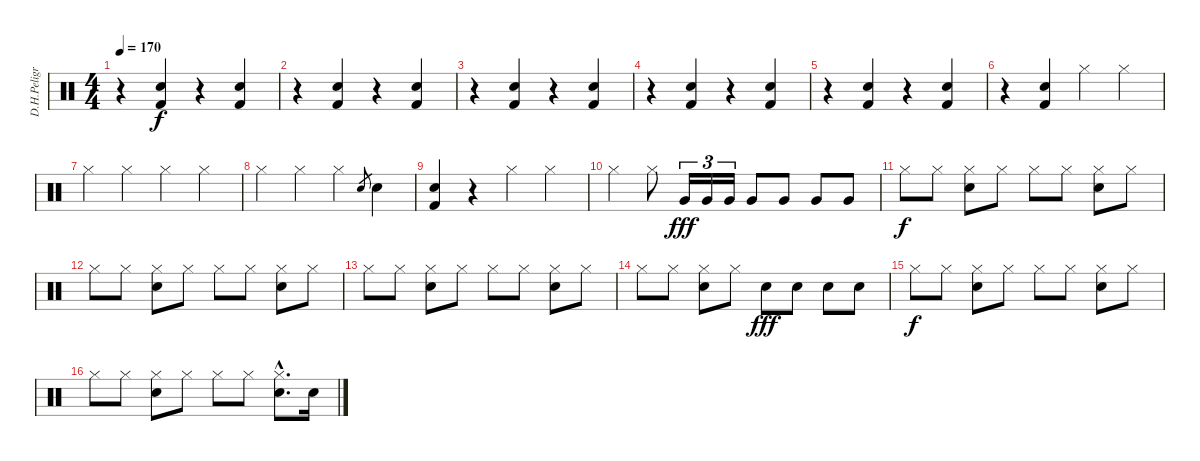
\track ("D.H.Peligro" "D.H.Peligr") {instrument percussion}
\staff {score}
\articulation defaults
\ts (4 4)
\tempo 170
\clef neutral
\ks c
r.4{dy f} ("Electric Snare (hit)" "Kick (hit) 2").4 r.4 ("Electric Snare (hit)" "Kick (hit) 2").4 |
r.4 ("Electric Snare (hit)" "Kick (hit) 2").4 r.4 ("Electric Snare (hit)" "Kick (hit) 2").4 |
r.4 ("Electric Snare (hit)" "Kick (hit) 2").4 r.4 ("Electric Snare (hit)" "Kick (hit) 2").4 |
r.4 ("Electric Snare (hit)" "Kick (hit) 2").4 r.4 ("Electric Snare (hit)" "Kick (hit) 2").4 |
r.4 ("Electric Snare (hit)" "Kick (hit) 2").4 r.4 ("Electric Snare (hit)" "Kick (hit) 2").4 |
r.4 ("Electric Snare (hit)" "Kick (hit) 2").4 "Hi-Hat (closed)".4 "Hi-Hat (closed)".4 |
"Hi-Hat (closed)".4 "Hi-Hat (closed)".4 "Hi-Hat (closed)".4 "Hi-Hat (closed)".4 |
"Hi-Hat (closed)".4 "Hi-Hat (closed)".4 "Hi-Hat (closed)".4 "Electric Snare (hit)".8{gr} "Electric Snare (hit)".4 |
("Electric Snare (hit)" "Kick (hit) 2").4 r.4 "Hi-Hat (closed)".4 "Hi-Hat (closed)".4 |
"Hi-Hat (closed)".4 "Hi-Hat (closed)".8 "Very Low Tom (hit)".16{tu (3 2) dy fff} "Very Low Tom (hit)".16{tu (3 2)} "Very Low Tom (hit)".16{tu (3 2)} "Very Low Tom (hit)".8 "Very Low Tom (hit)".8 "Very Low Tom (hit)".8 "Very Low Tom (hit)".8 |
"Hi-Hat (closed)".8{dy f} "Hi-Hat (closed)".8 ("Hi-Hat (closed)" "Electric Snare (hit)").8 "Hi-Hat (closed)".8 "Hi-Hat (closed)".8 "Hi-Hat (closed)".8 ("Hi-Hat (closed)" "Electric Snare (hit)").8 "Hi-Hat (closed)".8 |
"Hi-Hat (closed)".8 "Hi-Hat (closed)".8 ("Hi-Hat (closed)" "Electric Snare (hit)").8 "Hi-Hat (closed)".8 "Hi-Hat (closed)".8 "Hi-Hat (closed)".8 ("Hi-Hat (closed)" "Electric Snare (hit)").8 "Hi-Hat (closed)".8 |
"Hi-Hat (closed)".8 "Hi-Hat (closed)".8 ("Hi-Hat (closed)" "Electric Snare (hit)").8 "Hi-Hat (closed)".8 "Hi-Hat (closed)".8 "Hi-Hat (closed)".8 ("Hi-Hat (closed)" "Electric Snare (hit)").8 "Hi-Hat (closed)".8 |
"Hi-Hat (closed)".8 "Hi-Hat (closed)".8 ("Hi-Hat (closed)" "Electric Snare (hit)").8 "Hi-Hat (closed)".8 "Electric Snare (hit)".8{dy fff} "Electric Snare (hit)".8 "Electric Snare (hit)".8 "Electric Snare (hit)".8 |
"Hi-Hat (closed)".8{dy f} "Hi-Hat (closed)".8 ("Hi-Hat (closed)" "Electric Snare (hit)").8 "Hi-Hat (closed)".8 "Hi-Hat (closed)".8 "Hi-Hat (closed)".8 ("Hi-Hat (closed)" "Electric Snare (hit)").8 "Hi-Hat (closed)".8 |
"Hi-Hat (closed)".8 "Hi-Hat (closed)".8 ("Hi-Hat (closed)" "Electric Snare (hit)").8 "Hi-Hat (closed)".8 "Hi-Hat (closed)".8 "Hi-Hat (closed)".8 ("Hi-Hat (closed)"{hac} "Electric Snare (hit)"{hac}).8{d} "Electric Snare (hit)".16
